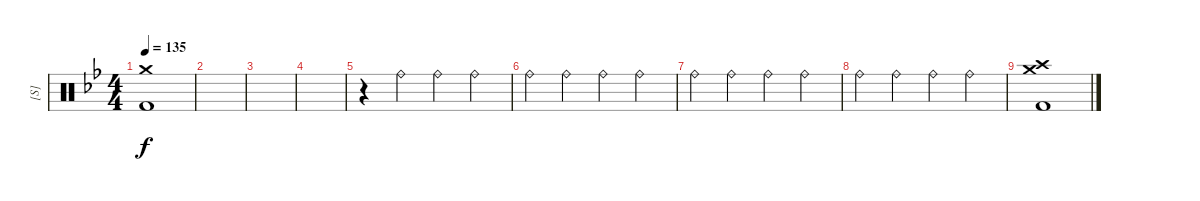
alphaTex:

\track ("[S]" "[S]") {instrument percussion}
\staff {score}
\articulation defaults
\ts (4 4)
\tempo 135
\clef neutral
\ks gminor
("Crash medium (hit)" "Kick (hit) 2").1{dy f} |
|
|
|
r.4 "Ride (bell)".4 "Ride (bell)".4 "Ride (bell)".4 |
"Ride (bell)".4 "Ride (bell)".4 "Ride (bell)".4 "Ride (bell)".4 |
"Ride (bell)".4 "Ride (bell)".4 "Ride (bell)".4 "Ride (bell)".4 |
"Ride (bell)".4 "Ride (bell)".4 "Ride (bell)".4 "Ride (bell)".4 |
("Crash medium (hit)" "Crash high (hit)" "Kick (hit) 2").1
